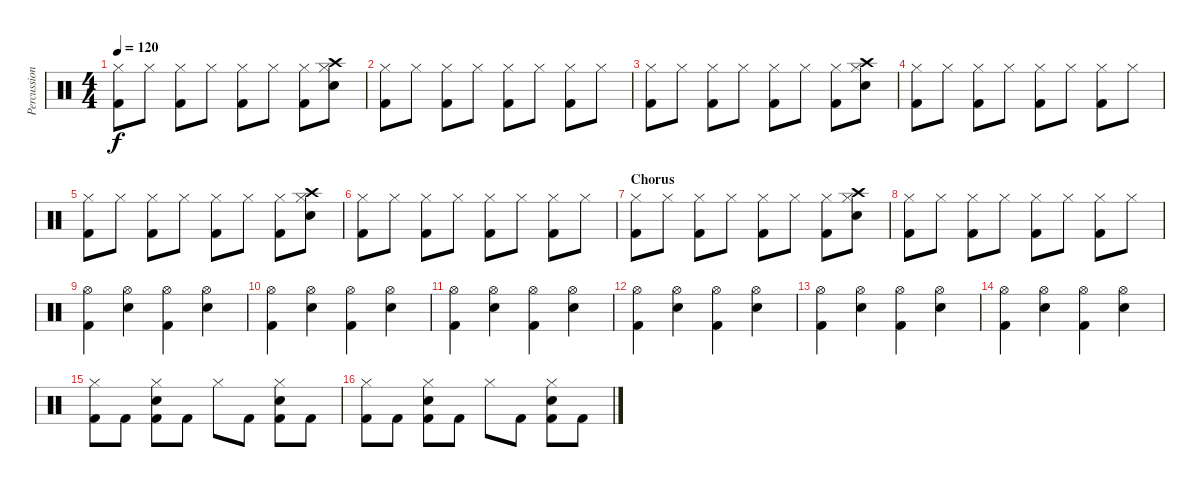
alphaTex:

\track ("Percussion" "Percussion") {instrument percussion}
\staff {score}
\articulation defaults
\ts (4 4)
\tempo 120
\clef neutral
\ks c
("Hi-Hat (closed)" "Kick (hit) 2").8{dy f} "Hi-Hat (closed)".8 ("Hi-Hat (closed)" "Kick (hit) 2").8 "Hi-Hat (closed)".8 ("Hi-Hat (closed)" "Kick (hit) 2").8 "Hi-Hat (closed)".8 ("Hi-Hat (closed)" "Kick (hit) 2").8 ("Hi-Hat (closed)" "Snare (hit) 2" "Crash high (hit)").8 |
("Hi-Hat (closed)" "Kick (hit) 2").8 "Hi-Hat (closed)".8 ("Hi-Hat (closed)" "Kick (hit) 2").8 "Hi-Hat (closed)".8 ("Hi-Hat (closed)" "Kick (hit) 2").8 "Hi-Hat (closed)".8 ("Hi-Hat (closed)" "Kick (hit) 2").8 "Hi-Hat (closed)".8 |
("Hi-Hat (closed)" "Kick (hit) 2").8 "Hi-Hat (closed)".8 ("Hi-Hat (closed)" "Kick (hit) 2").8 "Hi-Hat (closed)".8 ("Hi-Hat (closed)" "Kick (hit) 2").8 "Hi-Hat (closed)".8 ("Hi-Hat (closed)" "Kick (hit) 2").8 ("Hi-Hat (closed)" "Snare (hit) 2" "Crash high (hit)").8 |
("Hi-Hat (closed)" "Kick (hit) 2").8 "Hi-Hat (closed)".8 ("Hi-Hat (closed)" "Kick (hit) 2").8 "Hi-Hat (closed)".8 ("Hi-Hat (closed)" "Kick (hit) 2").8 "Hi-Hat (closed)".8 ("Hi-Hat (closed)" "Kick (hit) 2").8 "Hi-Hat (closed)".8 |
("Hi-Hat (closed)" "Kick (hit) 2").8 "Hi-Hat (closed)".8 ("Hi-Hat (closed)" "Kick (hit) 2").8 "Hi-Hat (closed)".8 ("Hi-Hat (closed)" "Kick (hit) 2").8 "Hi-Hat (closed)".8 ("Hi-Hat (closed)" "Kick (hit) 2").8 ("Hi-Hat (closed)" "Snare (hit) 2" "Crash high (hit)").8 |
("Hi-Hat (closed)" "Kick (hit) 2").8 "Hi-Hat (closed)".8 ("Hi-Hat (closed)" "Kick (hit) 2").8 "Hi-Hat (closed)".8 ("Hi-Hat (closed)" "Kick (hit) 2").8 "Hi-Hat (closed)".8 ("Hi-Hat (closed)" "Kick (hit) 2").8 "Hi-Hat (closed)".8 |
\section ("" "Chorus")
("Hi-Hat (closed)" "Kick (hit) 2").8 "Hi-Hat (closed)".8 ("Hi-Hat (closed)" "Kick (hit) 2").8 "Hi-Hat (closed)".8 ("Hi-Hat (closed)" "Kick (hit) 2").8 "Hi-Hat (closed)".8 ("Hi-Hat (closed)" "Kick (hit) 2").8 ("Hi-Hat (closed)" "Snare (hit) 2" "Crash high (hit)").8 |
("Hi-Hat (closed)" "Kick (hit) 2").8 "Hi-Hat (closed)".8 ("Hi-Hat (closed)" "Kick (hit) 2").8 "Hi-Hat (closed)".8 ("Hi-Hat (closed)" "Kick (hit) 2").8 "Hi-Hat (closed)".8 ("Hi-Hat (closed)" "Kick (hit) 2").8 "Hi-Hat (closed)".8 |
("Hi-Hat (open)" "Kick (hit) 2").4 ("Hi-Hat (open)" "Snare (hit) 2").4 ("Hi-Hat (open)" "Kick (hit) 2").4 ("Hi-Hat (open)" "Snare (hit) 2").4 |
("Hi-Hat (open)" "Kick (hit) 2").4 ("Hi-Hat (open)" "Snare (hit) 2").4 ("Hi-Hat (open)" "Kick (hit) 2").4 ("Hi-Hat (open)" "Snare (hit) 2").4 |
("Hi-Hat (open)" "Kick (hit) 2").4 ("Hi-Hat (open)" "Snare (hit) 2").4 ("Hi-Hat (open)" "Kick (hit) 2").4 ("Hi-Hat (open)" "Snare (hit) 2").4 |
("Hi-Hat (open)" "Kick (hit) 2").4 ("Hi-Hat (open)" "Snare (hit) 2").4 ("Hi-Hat (open)" "Kick (hit) 2").4 ("Hi-Hat (open)" "Snare (hit) 2").4 |
("Hi-Hat (open)" "Kick (hit) 2").4 ("Hi-Hat (open)" "Snare (hit) 2").4 ("Hi-Hat (open)" "Kick (hit) 2").4 ("Hi-Hat (open)" "Snare (hit) 2").4 |
("Hi-Hat (open)" "Kick (hit) 2").4 ("Hi-Hat (open)" "Snare (hit) 2").4 ("Hi-Hat (open)" "Kick (hit) 2").4 ("Hi-Hat (open)" "Snare (hit) 2").4 |
("Hi-Hat (closed)" "Kick (hit) 2").8 "Kick (hit) 2".8 ("Hi-Hat (closed)" "Kick (hit) 2" "Snare (hit) 2").8 "Kick (hit) 2".8 "Hi-Hat (closed)".8 "Kick (hit) 2".8 ("Hi-Hat (closed)" "Kick (hit) 2" "Snare (hit) 2").8 "Kick (hit) 2".8 |
("Hi-Hat (closed)" "Kick (hit) 2").8 "Kick (hit) 2".8 ("Hi-Hat (closed)" "Kick (hit) 2" "Snare (hit) 2").8 "Kick (hit) 2".8 "Hi-Hat (closed)".8 "Kick (hit) 2".8 ("Hi-Hat (closed)" "Kick (hit) 2" "Snare (hit) 2").8 "Kick (hit) 2".8
